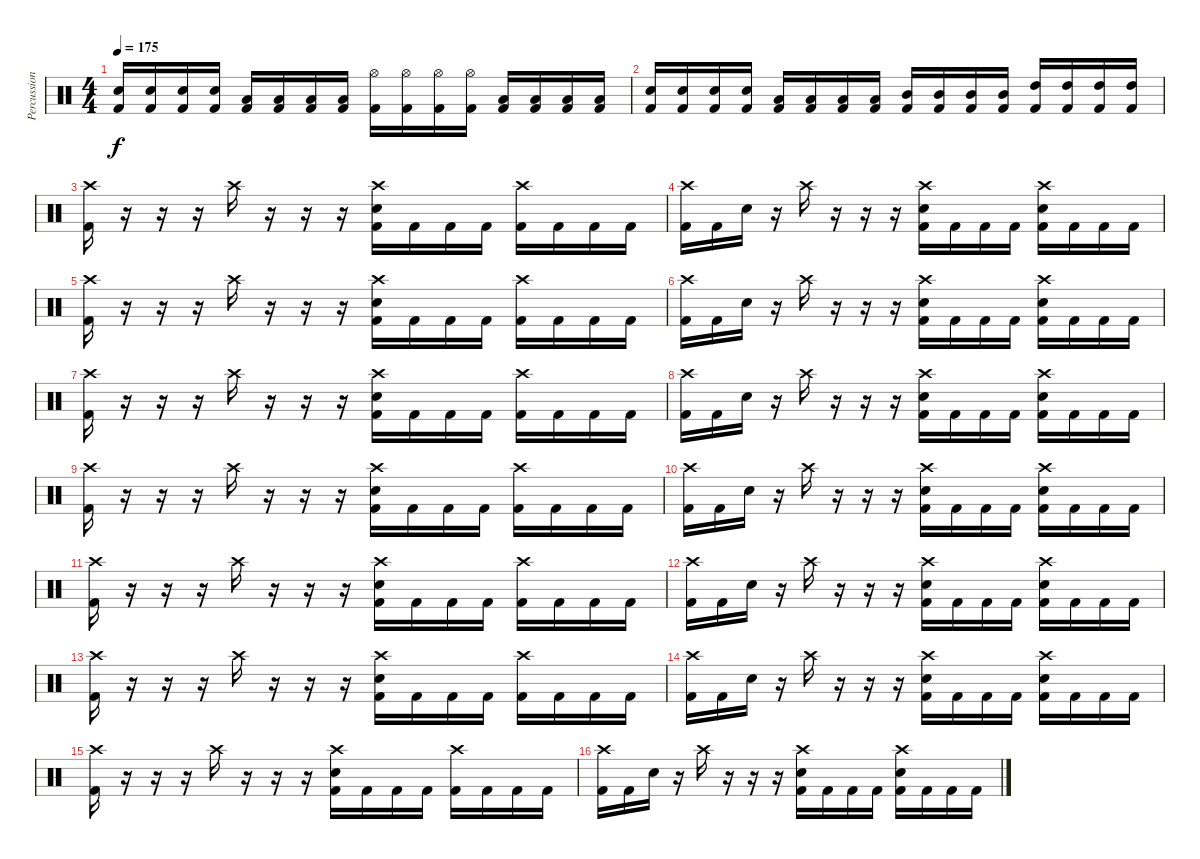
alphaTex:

\track ("Percussion" "Percussion") {instrument percussion}
\staff {score}
\articulation defaults
\ts (4 4)
\tempo 175
\clef neutral
\ks c
("Kick (hit) 2" "Snare (hit) 2").16{dy f} ("Kick (hit) 2" "Snare (hit) 2").16 ("Kick (hit) 2" "Snare (hit) 2").16 ("Kick (hit) 2" "Snare (hit) 2").16 ("Kick (hit) 2" "Low Tom (hit)").16 ("Kick (hit) 2" "Low Tom (hit)").16 ("Kick (hit) 2" "Low Tom (hit)").16 ("Kick (hit) 2" "Low Tom (hit)").16 ("Kick (hit) 2" "Hi-Hat (open)").16 ("Kick (hit) 2" "Hi-Hat (open)").16 ("Kick (hit) 2" "Hi-Hat (open)").16 ("Kick (hit) 2" "Hi-Hat (open)").16 ("Kick (hit) 2" "Low Tom (hit)").16 ("Kick (hit) 2" "Low Tom (hit)").16 ("Kick (hit) 2" "Low Tom (hit)").16 ("Kick (hit) 2" "Low Tom (hit)").16 |
("Kick (hit) 2" "Snare (hit) 2").16 ("Kick (hit) 2" "Snare (hit) 2").16 ("Kick (hit) 2" "Snare (hit) 2").16 ("Kick (hit) 2" "Snare (hit) 2").16 ("Kick (hit) 2" "Low Tom (hit)").16 ("Kick (hit) 2" "Low Tom (hit)").16 ("Kick (hit) 2" "Low Tom (hit)").16 ("Kick (hit) 2" "Low Tom (hit)").16 ("Kick (hit) 2" "Mid Tom (hit)").16 ("Kick (hit) 2" "Mid Tom (hit)").16 ("Kick (hit) 2" "Mid Tom (hit)").16 ("Kick (hit) 2" "Mid Tom (hit)").16 ("Kick (hit) 2" "High Tom (hit)").16 ("Kick (hit) 2" "High Tom (hit)").16 ("Kick (hit) 2" "High Tom (hit)").16 ("Kick (hit) 2" "High Tom (hit)").16 |
("Kick (hit) 2" "Crash high (hit)").16 r.16 r.16 r.16 "Crash high (hit)".16 r.16 r.16 r.16 ("Kick (hit) 2" "Snare (hit) 2" "Crash high (hit)").16 "Kick (hit) 2".16 "Kick (hit) 2".16 "Kick (hit) 2".16 ("Kick (hit) 2" "Crash high (hit)").16 "Kick (hit) 2".16 "Kick (hit) 2".16 "Kick (hit) 2".16 |
("Kick (hit) 2" "Crash high (hit)").16 "Kick (hit) 2".16 "Snare (hit) 2".16 r.16 "Crash high (hit)".16 r.16 r.16 r.16 ("Kick (hit) 2" "Snare (hit) 2" "Crash high (hit)").16 "Kick (hit) 2".16 "Kick (hit) 2".16 "Kick (hit) 2".16 ("Kick (hit) 2" "Snare (hit) 2" "Crash high (hit)").16 "Kick (hit) 2".16 "Kick (hit) 2".16 "Kick (hit) 2".16 |
("Kick (hit) 2" "Crash high (hit)").16 r.16 r.16 r.16 "Crash high (hit)".16 r.16 r.16 r.16 ("Kick (hit) 2" "Snare (hit) 2" "Crash high (hit)").16 "Kick (hit) 2".16 "Kick (hit) 2".16 "Kick (hit) 2".16 ("Kick (hit) 2" "Crash high (hit)").16 "Kick (hit) 2".16 "Kick (hit) 2".16 "Kick (hit) 2".16 |
("Kick (hit) 2" "Crash high (hit)").16 "Kick (hit) 2".16 "Snare (hit) 2".16 r.16 "Crash high (hit)".16 r.16 r.16 r.16 ("Kick (hit) 2" "Snare (hit) 2" "Crash high (hit)").16 "Kick (hit) 2".16 "Kick (hit) 2".16 "Kick (hit) 2".16 ("Kick (hit) 2" "Snare (hit) 2" "Crash high (hit)").16 "Kick (hit) 2".16 "Kick (hit) 2".16 "Kick (hit) 2".16 |
("Kick (hit) 2" "Crash high (hit)").16 r.16 r.16 r.16 "Crash high (hit)".16 r.16 r.16 r.16 ("Kick (hit) 2" "Snare (hit) 2" "Crash high (hit)").16 "Kick (hit) 2".16 "Kick (hit) 2".16 "Kick (hit) 2".16 ("Kick (hit) 2" "Crash high (hit)").16 "Kick (hit) 2".16 "Kick (hit) 2".16 "Kick (hit) 2".16 |
("Kick (hit) 2" "Crash high (hit)").16 "Kick (hit) 2".16 "Snare (hit) 2".16 r.16 "Crash high (hit)".16 r.16 r.16 r.16 ("Kick (hit) 2" "Snare (hit) 2" "Crash high (hit)").16 "Kick (hit) 2".16 "Kick (hit) 2".16 "Kick (hit) 2".16 ("Kick (hit) 2" "Snare (hit) 2" "Crash high (hit)").16 "Kick (hit) 2".16 "Kick (hit) 2".16 "Kick (hit) 2".16 |
("Kick (hit) 2" "Crash high (hit)").16 r.16 r.16 r.16 "Crash high (hit)".16 r.16 r.16 r.16 ("Kick (hit) 2" "Snare (hit) 2" "Crash high (hit)").16 "Kick (hit) 2".16 "Kick (hit) 2".16 "Kick (hit) 2".16 ("Kick (hit) 2" "Crash high (hit)").16 "Kick (hit) 2".16 "Kick (hit) 2".16 "Kick (hit) 2".16 |
("Kick (hit) 2" "Crash high (hit)").16 "Kick (hit) 2".16 "Snare (hit) 2".16 r.16 "Crash high (hit)".16 r.16 r.16 r.16 ("Kick (hit) 2" "Snare (hit) 2" "Crash high (hit)").16 "Kick (hit) 2".16 "Kick (hit) 2".16 "Kick (hit) 2".16 ("Kick (hit) 2" "Snare (hit) 2" "Crash high (hit)").16 "Kick (hit) 2".16 "Kick (hit) 2".16 "Kick (hit) 2".16 |
("Kick (hit) 2" "Crash high (hit)").16 r.16 r.16 r.16 "Crash high (hit)".16 r.16 r.16 r.16 ("Kick (hit) 2" "Snare (hit) 2" "Crash high (hit)").16 "Kick (hit) 2".16 "Kick (hit) 2".16 "Kick (hit) 2".16 ("Kick (hit) 2" "Crash high (hit)").16 "Kick (hit) 2".16 "Kick (hit) 2".16 "Kick (hit) 2".16 |
("Kick (hit) 2" "Crash high (hit)").16 "Kick (hit) 2".16 "Snare (hit) 2".16 r.16 "Crash high (hit)".16 r.16 r.16 r.16 ("Kick (hit) 2" "Snare (hit) 2" "Crash high (hit)").16 "Kick (hit) 2".16 "Kick (hit) 2".16 "Kick (hit) 2".16 ("Kick (hit) 2" "Snare (hit) 2" "Crash high (hit)").16 "Kick (hit) 2".16 "Kick (hit) 2".16 "Kick (hit) 2".16 |
("Kick (hit) 2" "Crash high (hit)").16 r.16 r.16 r.16 "Crash high (hit)".16 r.16 r.16 r.16 ("Kick (hit) 2" "Snare (hit) 2" "Crash high (hit)").16 "Kick (hit) 2".16 "Kick (hit) 2".16 "Kick (hit) 2".16 ("Kick (hit) 2" "Crash high (hit)").16 "Kick (hit) 2".16 "Kick (hit) 2".16 "Kick (hit) 2".16 |
("Kick (hit) 2" "Crash high (hit)").16 "Kick (hit) 2".16 "Snare (hit) 2".16 r.16 "Crash high (hit)".16 r.16 r.16 r.16 ("Kick (hit) 2" "Snare (hit) 2" "Crash high (hit)").16 "Kick (hit) 2".16 "Kick (hit) 2".16 "Kick (hit) 2".16 ("Kick (hit) 2" "Snare (hit) 2" "Crash high (hit)").16 "Kick (hit) 2".16 "Kick (hit) 2".16 "Kick (hit) 2".16 |
("Kick (hit) 2" "Crash high (hit)").16 r.16 r.16 r.16 "Crash high (hit)".16 r.16 r.16 r.16 ("Kick (hit) 2" "Snare (hit) 2" "Crash high (hit)").16 "Kick (hit) 2".16 "Kick (hit) 2".16 "Kick (hit) 2".16 ("Kick (hit) 2" "Crash high (hit)").16 "Kick (hit) 2".16 "Kick (hit) 2".16 "Kick (hit) 2".16 |
("Kick (hit) 2" "Crash high (hit)").16 "Kick (hit) 2".16 "Snare (hit) 2".16 r.16 "Crash high (hit)".16 r.16 r.16 r.16 ("Kick (hit) 2" "Snare (hit) 2" "Crash high (hit)").16 "Kick (hit) 2".16 "Kick (hit) 2".16 "Kick (hit) 2".16 ("Kick (hit) 2" "Snare (hit) 2" "Crash high (hit)").16 "Kick (hit) 2".16 "Kick (hit) 2".16 "Kick (hit) 2".16
